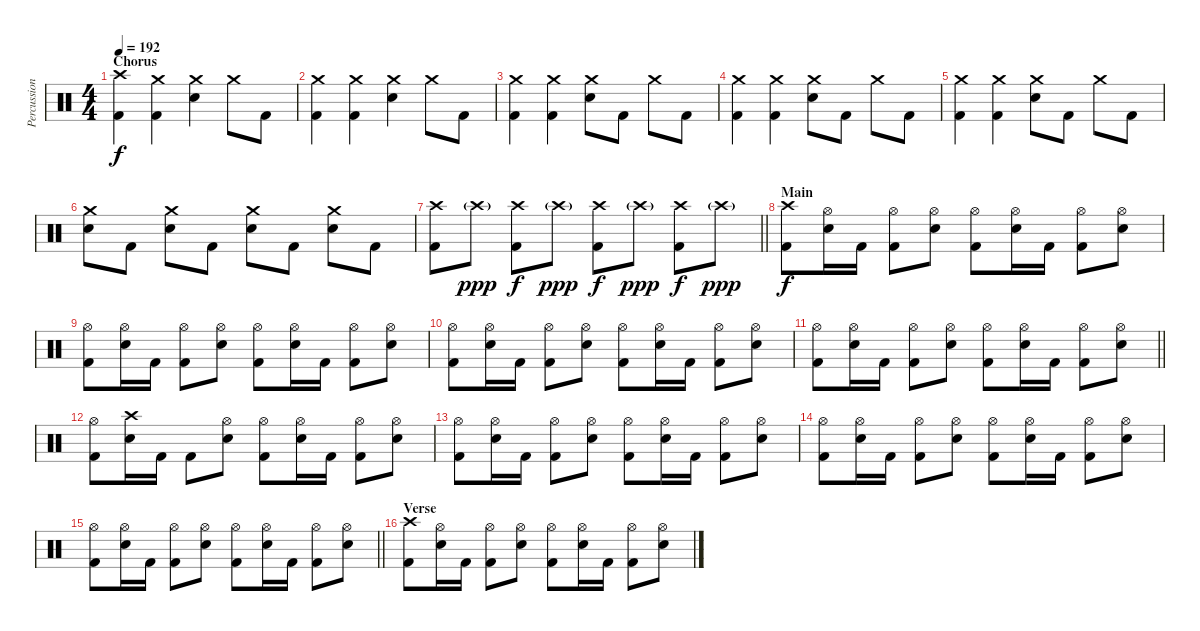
\track ("Percussion" "Percussion") {instrument percussion}
\staff {score}
\articulation defaults
\ts (4 4)
\section ("" "Chorus")
\tempo 192
\clef neutral
\ks c
("Crash high (hit)" "Kick (hit) 2").4{dy f} ("Crash medium (hit)" "Kick (hit) 2").4 ("Crash medium (hit)" "Electric Snare (hit)").4 "Crash medium (hit)".8 "Kick (hit) 2".8 |
("Crash medium (hit)" "Kick (hit) 2").4 ("Crash medium (hit)" "Kick (hit) 2").4 ("Crash medium (hit)" "Electric Snare (hit)").4 "Crash medium (hit)".8 "Kick (hit) 2".8 |
("Crash medium (hit)" "Kick (hit) 2").4 ("Crash medium (hit)" "Kick (hit) 2").4 ("Crash medium (hit)" "Electric Snare (hit)").8 "Kick (hit) 2".8 "Crash medium (hit)".8 "Kick (hit) 2".8 |
("Crash medium (hit)" "Kick (hit) 2").4 ("Crash medium (hit)" "Kick (hit) 2").4 ("Crash medium (hit)" "Electric Snare (hit)").8 "Kick (hit) 2".8 "Crash medium (hit)".8 "Kick (hit) 2".8 |
("Crash medium (hit)" "Kick (hit) 2").4 ("Crash medium (hit)" "Kick (hit) 2").4 ("Crash medium (hit)" "Electric Snare (hit)").8 "Kick (hit) 2".8 "Crash medium (hit)".8 "Kick (hit) 2".8 |
("Crash medium (hit)" "Electric Snare (hit)").8 "Kick (hit) 2".8 ("Crash medium (hit)" "Electric Snare (hit)").8 "Kick (hit) 2".8 ("Crash medium (hit)" "Electric Snare (hit)").8 "Kick (hit) 2".8 ("Crash medium (hit)" "Electric Snare (hit)").8 "Kick (hit) 2".8 |
\barLineRight lightlight
("Crash high (hit)" "Kick (hit) 2").8 "Crash high (hit)"{g}.8{dy ppp} ("Crash high (hit)" "Kick (hit) 2").8{dy f} "Crash high (hit)"{g}.8{dy ppp} ("Crash high (hit)" "Kick (hit) 2").8{dy f} "Crash high (hit)"{g}.8{dy ppp} ("Crash high (hit)" "Kick (hit) 2").8{dy f} "Crash high (hit)"{g}.8{dy ppp} |
\section ("" "Main")
("Crash high (hit)" "Kick (hit) 2").8{dy f} ("Hi-Hat (open)" "Electric Snare (hit)").16 "Kick (hit) 2".16 ("Hi-Hat (open)" "Kick (hit) 2").8 ("Hi-Hat (open)" "Electric Snare (hit)").8 ("Hi-Hat (open)" "Kick (hit) 2").8 ("Hi-Hat (open)" "Electric Snare (hit)").16 "Kick (hit) 2".16 ("Hi-Hat (open)" "Kick (hit) 2").8 ("Hi-Hat (open)" "Electric Snare (hit)").8 |
("Hi-Hat (open)" "Kick (hit) 2").8 ("Hi-Hat (open)" "Electric Snare (hit)").16 "Kick (hit) 2".16 ("Hi-Hat (open)" "Kick (hit) 2").8 ("Hi-Hat (open)" "Electric Snare (hit)").8 ("Hi-Hat (open)" "Kick (hit) 2").8 ("Hi-Hat (open)" "Electric Snare (hit)").16 "Kick (hit) 2".16 ("Hi-Hat (open)" "Kick (hit) 2").8 ("Hi-Hat (open)" "Electric Snare (hit)").8 |
("Hi-Hat (open)" "Kick (hit) 2").8 ("Hi-Hat (open)" "Electric Snare (hit)").16 "Kick (hit) 2".16 ("Hi-Hat (open)" "Kick (hit) 2").8 ("Hi-Hat (open)" "Electric Snare (hit)").8 ("Hi-Hat (open)" "Kick (hit) 2").8 ("Hi-Hat (open)" "Electric Snare (hit)").16 "Kick (hit) 2".16 ("Hi-Hat (open)" "Kick (hit) 2").8 ("Hi-Hat (open)" "Electric Snare (hit)").8 |
\barLineRight lightlight
("Hi-Hat (open)" "Kick (hit) 2").8 ("Hi-Hat (open)" "Electric Snare (hit)").16 "Kick (hit) 2".16 ("Hi-Hat (open)" "Kick (hit) 2").8 ("Hi-Hat (open)" "Electric Snare (hit)").8 ("Hi-Hat (open)" "Kick (hit) 2").8 ("Hi-Hat (open)" "Electric Snare (hit)").16 "Kick (hit) 2".16 ("Hi-Hat (open)" "Kick (hit) 2").8 ("Hi-Hat (open)" "Electric Snare (hit)").8 |
("Hi-Hat (open)" "Kick (hit) 2").8 ("Crash high (hit)" "Electric Snare (hit)").16 "Kick (hit) 2".16 "Kick (hit) 2".8 ("Hi-Hat (open)" "Electric Snare (hit)").8 ("Hi-Hat (open)" "Kick (hit) 2").8 ("Hi-Hat (open)" "Electric Snare (hit)").16 "Kick (hit) 2".16 ("Hi-Hat (open)" "Kick (hit) 2").8 ("Hi-Hat (open)" "Electric Snare (hit)").8 |
("Hi-Hat (open)" "Kick (hit) 2").8 ("Hi-Hat (open)" "Electric Snare (hit)").16 "Kick (hit) 2".16 ("Hi-Hat (open)" "Kick (hit) 2").8 ("Hi-Hat (open)" "Electric Snare (hit)").8 ("Hi-Hat (open)" "Kick (hit) 2").8 ("Hi-Hat (open)" "Electric Snare (hit)").16 "Kick (hit) 2".16 ("Hi-Hat (open)" "Kick (hit) 2").8 ("Hi-Hat (open)" "Electric Snare (hit)").8 |
("Hi-Hat (open)" "Kick (hit) 2").8 ("Hi-Hat (open)" "Electric Snare (hit)").16 "Kick (hit) 2".16 ("Hi-Hat (open)" "Kick (hit) 2").8 ("Hi-Hat (open)" "Electric Snare (hit)").8 ("Hi-Hat (open)" "Kick (hit) 2").8 ("Hi-Hat (open)" "Electric Snare (hit)").16 "Kick (hit) 2".16 ("Hi-Hat (open)" "Kick (hit) 2").8 ("Hi-Hat (open)" "Electric Snare (hit)").8 |
\barLineRight lightlight
("Hi-Hat (open)" "Kick (hit) 2").8 ("Hi-Hat (open)" "Electric Snare (hit)").16 "Kick (hit) 2".16 ("Hi-Hat (open)" "Kick (hit) 2").8 ("Hi-Hat (open)" "Electric Snare (hit)").8 ("Hi-Hat (open)" "Kick (hit) 2").8 ("Hi-Hat (open)" "Electric Snare (hit)").16 "Kick (hit) 2".16 ("Hi-Hat (open)" "Kick (hit) 2").8 ("Hi-Hat (open)" "Electric Snare (hit)").8 |
\section ("" "Verse")
("Crash high (hit)" "Kick (hit) 2").8 ("Hi-Hat (open)" "Electric Snare (hit)").16 "Kick (hit) 2".16 ("Hi-Hat (open)" "Kick (hit) 2").8 ("Hi-Hat (open)" "Electric Snare (hit)").8 ("Hi-Hat (open)" "Kick (hit) 2").8 ("Hi-Hat (open)" "Electric Snare (hit)").16 "Kick (hit) 2".16 ("Hi-Hat (open)" "Kick (hit) 2").8 ("Hi-Hat (open)" "Electric Snare (hit)").8
